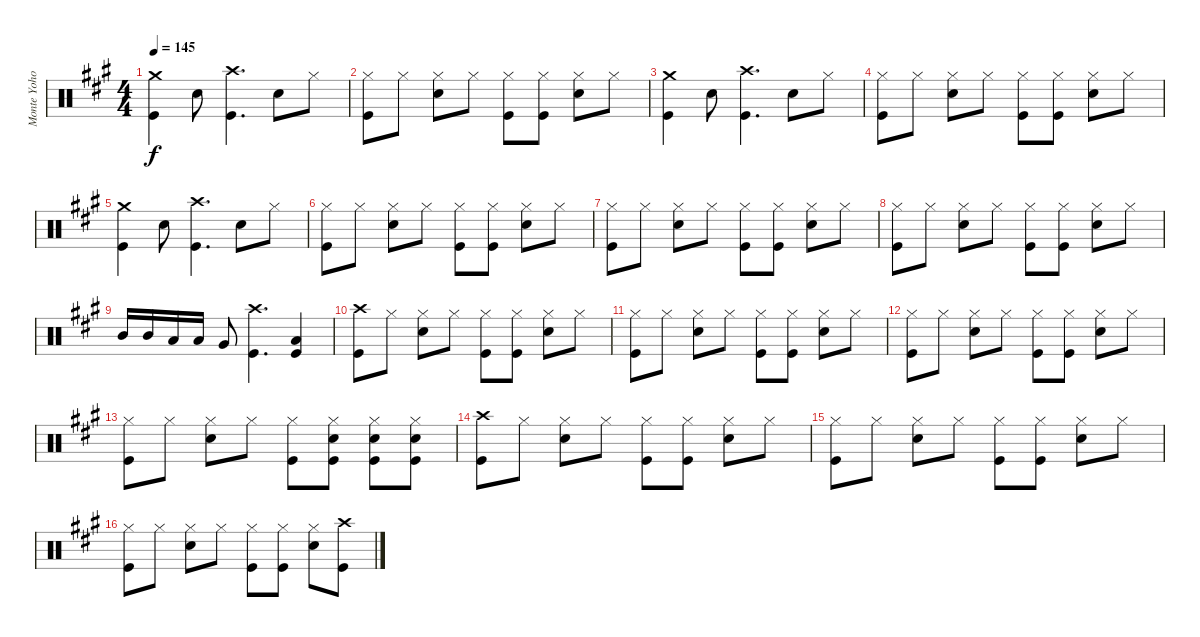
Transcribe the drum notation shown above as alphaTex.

\track ("Monte Yoho Drums" "Monte Yoho") {instrument percussion}
\staff {score}
\articulation defaults
\ts (4 4)
\tempo 145
\clef neutral
\ks a
("Crash medium (hit)" "Kick (hit)").4{dy f} "Snare (hit) 2".8 ("Crash high (hit)" "Kick (hit)").4{d} "Snare (hit) 2".8 "Hi-Hat (closed)".8 |
("Hi-Hat (closed)" "Kick (hit)").8 "Hi-Hat (closed)".8 ("Hi-Hat (closed)" "Snare (hit) 2").8 "Hi-Hat (closed)".8 ("Hi-Hat (closed)" "Kick (hit)").8 ("Hi-Hat (closed)" "Kick (hit)").8 ("Hi-Hat (closed)" "Snare (hit) 2").8 "Hi-Hat (closed)".8 |
("Crash medium (hit)" "Kick (hit)").4 "Snare (hit) 2".8 ("Crash high (hit)" "Kick (hit)").4{d} "Snare (hit) 2".8 "Hi-Hat (closed)".8 |
("Hi-Hat (closed)" "Kick (hit)").8 "Hi-Hat (closed)".8 ("Hi-Hat (closed)" "Snare (hit) 2").8 "Hi-Hat (closed)".8 ("Hi-Hat (closed)" "Kick (hit)").8 ("Hi-Hat (closed)" "Kick (hit)").8 ("Hi-Hat (closed)" "Snare (hit) 2").8 "Hi-Hat (closed)".8 |
("Crash medium (hit)" "Kick (hit)").4 "Snare (hit) 2".8 ("Crash high (hit)" "Kick (hit)").4{d} "Snare (hit) 2".8 "Hi-Hat (closed)".8 |
("Hi-Hat (closed)" "Kick (hit)").8 "Hi-Hat (closed)".8 ("Hi-Hat (closed)" "Snare (hit) 2").8 "Hi-Hat (closed)".8 ("Hi-Hat (closed)" "Kick (hit)").8 ("Hi-Hat (closed)" "Kick (hit)").8 ("Hi-Hat (closed)" "Snare (hit) 2").8 "Hi-Hat (closed)".8 |
("Hi-Hat (closed)" "Kick (hit)").8 "Hi-Hat (closed)".8 ("Hi-Hat (closed)" "Snare (hit) 2").8 "Hi-Hat (closed)".8 ("Hi-Hat (closed)" "Kick (hit)").8 ("Hi-Hat (closed)" "Kick (hit)").8 ("Hi-Hat (closed)" "Snare (hit) 2").8 "Hi-Hat (closed)".8 |
("Hi-Hat (closed)" "Kick (hit)").8 "Hi-Hat (closed)".8 ("Hi-Hat (closed)" "Snare (hit) 2").8 "Hi-Hat (closed)".8 ("Hi-Hat (closed)" "Kick (hit)").8 ("Hi-Hat (closed)" "Kick (hit)").8 ("Hi-Hat (closed)" "Snare (hit) 2").8 "Hi-Hat (closed)".8 |
"Mid Tom (hit)".16 "Mid Tom (hit)".16 "Low Tom (hit)".16 "Low Tom (hit)".16 "Very Low Tom (hit)".8 ("Crash high (hit)" "Kick (hit)").4{d} ("Low Floor Tom (hit)" "Kick (hit)").4 |
("Crash high (hit)" "Kick (hit)").8 "Hi-Hat (closed)".8 ("Hi-Hat (closed)" "Snare (hit) 2").8 "Hi-Hat (closed)".8 ("Hi-Hat (closed)" "Kick (hit)").8 ("Hi-Hat (closed)" "Kick (hit)").8 ("Hi-Hat (closed)" "Snare (hit) 2").8 "Hi-Hat (closed)".8 |
("Hi-Hat (closed)" "Kick (hit)").8 "Hi-Hat (closed)".8 ("Hi-Hat (closed)" "Snare (hit) 2").8 "Hi-Hat (closed)".8 ("Hi-Hat (closed)" "Kick (hit)").8 ("Hi-Hat (closed)" "Kick (hit)").8 ("Hi-Hat (closed)" "Snare (hit) 2").8 "Hi-Hat (closed)".8 |
("Hi-Hat (closed)" "Kick (hit)").8 "Hi-Hat (closed)".8 ("Hi-Hat (closed)" "Snare (hit) 2").8 "Hi-Hat (closed)".8 ("Hi-Hat (closed)" "Kick (hit)").8 ("Hi-Hat (closed)" "Kick (hit)").8 ("Hi-Hat (closed)" "Snare (hit) 2").8 "Hi-Hat (closed)".8 |
("Hi-Hat (closed)" "Kick (hit)").8 "Hi-Hat (closed)".8 ("Hi-Hat (closed)" "Snare (hit) 2").8 "Hi-Hat (closed)".8 ("Hi-Hat (closed)" "Kick (hit)").8 ("Hi-Hat (closed)" "Snare (hit) 2" "Kick (hit)").8 ("Hi-Hat (closed)" "Snare (hit) 2" "Kick (hit)").8 ("Hi-Hat (closed)" "Snare (hit) 2" "Kick (hit)").8 |
("Crash high (hit)" "Kick (hit)").8 "Hi-Hat (closed)".8 ("Hi-Hat (closed)" "Snare (hit) 2").8 "Hi-Hat (closed)".8 ("Hi-Hat (closed)" "Kick (hit)").8 ("Hi-Hat (closed)" "Kick (hit)").8 ("Hi-Hat (closed)" "Snare (hit) 2").8 "Hi-Hat (closed)".8 |
("Hi-Hat (closed)" "Kick (hit)").8 "Hi-Hat (closed)".8 ("Hi-Hat (closed)" "Snare (hit) 2").8 "Hi-Hat (closed)".8 ("Hi-Hat (closed)" "Kick (hit)").8 ("Hi-Hat (closed)" "Kick (hit)").8 ("Hi-Hat (closed)" "Snare (hit) 2").8 "Hi-Hat (closed)".8 |
("Hi-Hat (closed)" "Kick (hit)").8 "Hi-Hat (closed)".8 ("Hi-Hat (closed)" "Snare (hit) 2").8 "Hi-Hat (closed)".8 ("Hi-Hat (closed)" "Kick (hit)").8 ("Hi-Hat (closed)" "Kick (hit)").8 ("Hi-Hat (closed)" "Snare (hit) 2").8 ("Crash high (hit)" "Kick (hit)").8
